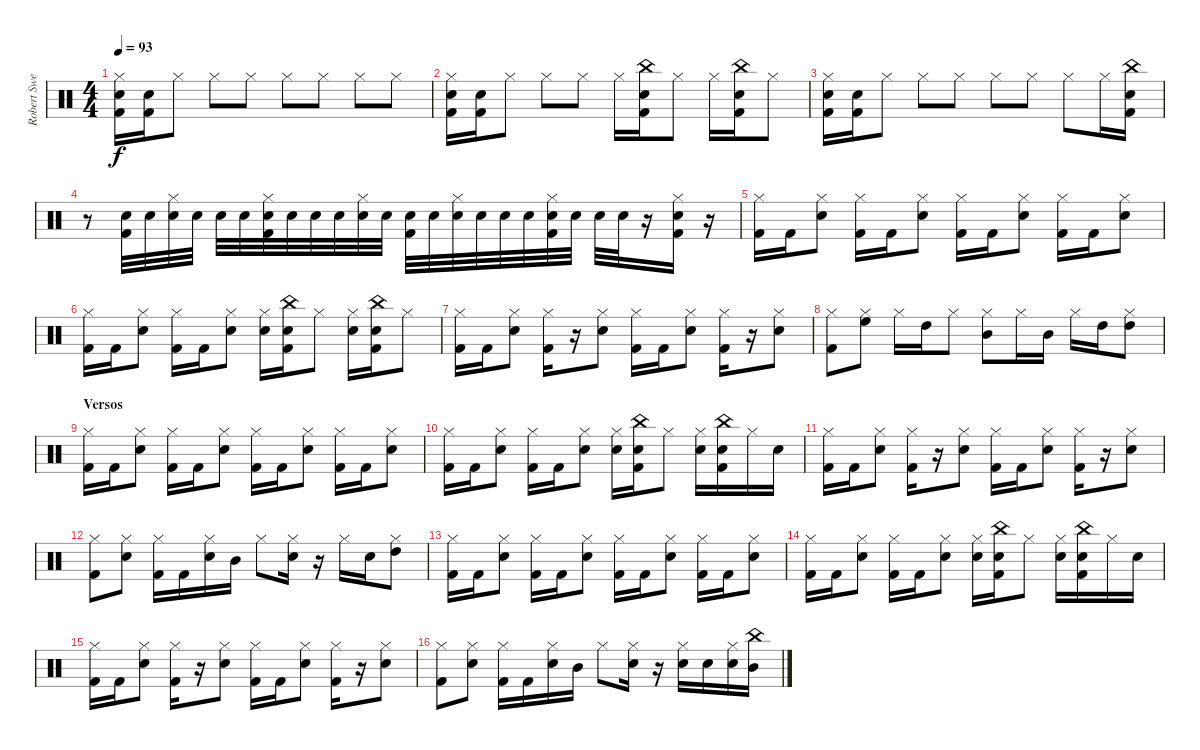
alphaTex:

\track ("Robert Sweet" "Robert Swe") {instrument percussion}
\staff {score}
\articulation defaults
\ts (4 4)
\tempo 93
\clef neutral
\ks c
("Hi-Hat (closed)" "Kick (hit) 2" "Snare (hit) 2").16{dy f} ("Kick (hit) 2" "Snare (hit) 2").16 "Hi-Hat (closed)".8 "Hi-Hat (closed)".8 "Hi-Hat (closed)".8 "Hi-Hat (closed)".8 "Hi-Hat (closed)".8 "Hi-Hat (closed)".8 "Hi-Hat (closed)".8 |
("Hi-Hat (closed)" "Kick (hit) 2" "Snare (hit) 2").16 ("Kick (hit) 2" "Snare (hit) 2").16 "Hi-Hat (closed)".8 "Hi-Hat (closed)".8 "Hi-Hat (closed)".8 "Hi-Hat (closed)".16 ("Kick (hit) 2" "Snare (hit) 2" "China (hit)").16 "Hi-Hat (closed)".8 "Hi-Hat (closed)".16 ("Kick (hit) 2" "Snare (hit) 2" "China (hit)").16 "Hi-Hat (closed)".8 |
("Hi-Hat (closed)" "Kick (hit) 2" "Snare (hit) 2").16 ("Kick (hit) 2" "Snare (hit) 2").16 "Hi-Hat (closed)".8 "Hi-Hat (closed)".8 "Hi-Hat (closed)".8 "Hi-Hat (closed)".8 "Hi-Hat (closed)".8 "Hi-Hat (closed)".8 "Hi-Hat (closed)".16 ("Kick (hit) 2" "Snare (hit) 2" "China (hit)").16 |
r.8 ("Snare (hit) 2" "Kick (hit) 2").32 "Snare (hit) 2".32 ("Hi-Hat (closed)" "Snare (hit) 2").32 "Snare (hit) 2".32 "Snare (hit) 2".32 "Snare (hit) 2".32 ("Hi-Hat (closed)" "Snare (hit) 2" "Kick (hit) 2").32 "Snare (hit) 2".32 "Snare (hit) 2".32 "Snare (hit) 2".32 ("Hi-Hat (closed)" "Snare (hit) 2").32 "Snare (hit) 2".32 ("Snare (hit) 2" "Kick (hit) 2").32 "Snare (hit) 2".32 ("Hi-Hat (closed)" "Snare (hit) 2").32 "Snare (hit) 2".32 "Snare (hit) 2".32 "Snare (hit) 2".32 ("Hi-Hat (closed)" "Snare (hit) 2" "Kick (hit) 2").32 "Snare (hit) 2".32 "Snare (hit) 2".32 "Snare (hit) 2".32 r.16 ("Hi-Hat (closed)" "Snare (hit) 2" "Kick (hit) 2").16 r.16 |
("Hi-Hat (closed)" "Kick (hit) 2").16 "Kick (hit) 2".16 ("Hi-Hat (closed)" "Snare (hit) 2").8 ("Hi-Hat (closed)" "Kick (hit) 2").16 "Kick (hit) 2".16 ("Hi-Hat (closed)" "Snare (hit) 2").8 ("Hi-Hat (closed)" "Kick (hit) 2").16 "Kick (hit) 2".16 ("Hi-Hat (closed)" "Snare (hit) 2").8 ("Hi-Hat (closed)" "Kick (hit) 2").16 "Kick (hit) 2".16 ("Hi-Hat (closed)" "Snare (hit) 2").8 |
("Hi-Hat (closed)" "Kick (hit) 2").16 "Kick (hit) 2".16 ("Hi-Hat (closed)" "Snare (hit) 2").8 ("Hi-Hat (closed)" "Kick (hit) 2").16 "Kick (hit) 2".16 ("Hi-Hat (closed)" "Snare (hit) 2").8 ("Hi-Hat (closed)" "Snare (hit) 2").16 ("Kick (hit) 2" "Snare (hit) 2" "China (hit)").16 "Hi-Hat (closed)".8 ("Hi-Hat (closed)" "Snare (hit) 2").16 ("Kick (hit) 2" "Snare (hit) 2" "China (hit)").16 "Hi-Hat (closed)".8 |
("Hi-Hat (closed)" "Kick (hit) 2").16 "Kick (hit) 2".16 ("Hi-Hat (closed)" "Snare (hit) 2").8 ("Hi-Hat (closed)" "Kick (hit) 2").16 r.16 ("Hi-Hat (closed)" "Snare (hit) 2").8 ("Hi-Hat (closed)" "Kick (hit) 2").16 "Kick (hit) 2".16 ("Hi-Hat (closed)" "Snare (hit) 2").8 ("Hi-Hat (closed)" "Kick (hit) 2").16 r.16 ("Hi-Hat (closed)" "Snare (hit) 2").8 |
("Hi-Hat (closed)" "Kick (hit) 2").8 ("Hi-Hat (closed)" "High Floor Tom (hit)").8 "Hi-Hat (closed)".16 "High Tom (hit)".16 "Hi-Hat (closed)".8 ("Hi-Hat (closed)" "Mid Tom (hit)").8 "Hi-Hat (closed)".16 "Mid Tom (hit)".16 "Hi-Hat (closed)".16 "High Tom (hit)".16 ("Hi-Hat (closed)" "High Tom (hit)").8 |
\section ("" "Versos")
("Hi-Hat (closed)" "Kick (hit) 2").16 "Kick (hit) 2".16 ("Hi-Hat (closed)" "Snare (hit) 2").8 ("Hi-Hat (closed)" "Kick (hit) 2").16 "Kick (hit) 2".16 ("Hi-Hat (closed)" "Snare (hit) 2").8 ("Hi-Hat (closed)" "Kick (hit) 2").16 "Kick (hit) 2".16 ("Hi-Hat (closed)" "Snare (hit) 2").8 ("Hi-Hat (closed)" "Kick (hit) 2").16 "Kick (hit) 2".16 ("Hi-Hat (closed)" "Snare (hit) 2").8 |
("Hi-Hat (closed)" "Kick (hit) 2").16 "Kick (hit) 2".16 ("Hi-Hat (closed)" "Snare (hit) 2").8 ("Hi-Hat (closed)" "Kick (hit) 2").16 "Kick (hit) 2".16 ("Hi-Hat (closed)" "Snare (hit) 2").8 ("Hi-Hat (closed)" "Snare (hit) 2").16 ("Kick (hit) 2" "Snare (hit) 2" "China (hit)").16 "Hi-Hat (closed)".8 ("Hi-Hat (closed)" "Snare (hit) 2").16 ("Kick (hit) 2" "Snare (hit) 2" "China (hit)").16 "Hi-Hat (closed)".16 "Snare (hit) 2".16 |
("Hi-Hat (closed)" "Kick (hit) 2").16 "Kick (hit) 2".16 ("Hi-Hat (closed)" "Snare (hit) 2").8 ("Hi-Hat (closed)" "Kick (hit) 2").16 r.16 ("Hi-Hat (closed)" "Snare (hit) 2").8 ("Hi-Hat (closed)" "Kick (hit) 2").16 "Kick (hit) 2".16 ("Hi-Hat (closed)" "Snare (hit) 2").8 ("Hi-Hat (closed)" "Kick (hit) 2").16 r.16 ("Hi-Hat (closed)" "Snare (hit) 2").8 |
("Hi-Hat (closed)" "Kick (hit) 2").8 ("Hi-Hat (closed)" "Snare (hit) 2").8 ("Hi-Hat (closed)" "Kick (hit) 2").16 "Kick (hit) 2".16 ("Hi-Hat (closed)" "Snare (hit) 2").16 "Mid Tom (hit)".16 "Hi-Hat (closed)".8 ("Hi-Hat (closed)" "Snare (hit) 2").16 r.16 "Hi-Hat (closed)".16 "Snare (hit) 2".16 ("Hi-Hat (closed)" "High Tom (hit)").8 |
("Hi-Hat (closed)" "Kick (hit) 2").16 "Kick (hit) 2".16 ("Hi-Hat (closed)" "Snare (hit) 2").8 ("Hi-Hat (closed)" "Kick (hit) 2").16 "Kick (hit) 2".16 ("Hi-Hat (closed)" "Snare (hit) 2").8 ("Hi-Hat (closed)" "Kick (hit) 2").16 "Kick (hit) 2".16 ("Hi-Hat (closed)" "Snare (hit) 2").8 ("Hi-Hat (closed)" "Kick (hit) 2").16 "Kick (hit) 2".16 ("Hi-Hat (closed)" "Snare (hit) 2").8 |
("Hi-Hat (closed)" "Kick (hit) 2").16 "Kick (hit) 2".16 ("Hi-Hat (closed)" "Snare (hit) 2").8 ("Hi-Hat (closed)" "Kick (hit) 2").16 "Kick (hit) 2".16 ("Hi-Hat (closed)" "Snare (hit) 2").8 ("Hi-Hat (closed)" "Snare (hit) 2").16 ("Kick (hit) 2" "Snare (hit) 2" "China (hit)").16 "Hi-Hat (closed)".8 ("Hi-Hat (closed)" "Snare (hit) 2").16 ("Kick (hit) 2" "Snare (hit) 2" "China (hit)").16 "Hi-Hat (closed)".16 "Snare (hit) 2".16 |
("Hi-Hat (closed)" "Kick (hit) 2").16 "Kick (hit) 2".16 ("Hi-Hat (closed)" "Snare (hit) 2").8 ("Hi-Hat (closed)" "Kick (hit) 2").16 r.16 ("Hi-Hat (closed)" "Snare (hit) 2").8 ("Hi-Hat (closed)" "Kick (hit) 2").16 "Kick (hit) 2".16 ("Hi-Hat (closed)" "Snare (hit) 2").8 ("Hi-Hat (closed)" "Kick (hit) 2").16 r.16 ("Hi-Hat (closed)" "Snare (hit) 2").8 |
("Hi-Hat (closed)" "Kick (hit) 2").8 ("Hi-Hat (closed)" "Snare (hit) 2").8 ("Hi-Hat (closed)" "Kick (hit) 2").16 "Kick (hit) 2".16 ("Hi-Hat (closed)" "Snare (hit) 2").16 "Mid Tom (hit)".16 "Hi-Hat (closed)".8 ("Hi-Hat (closed)" "Snare (hit) 2").16 r.16 ("Hi-Hat (closed)" "Snare (hit) 2").16 "Snare (hit) 2".16 ("Hi-Hat (closed)" "Snare (hit) 2").16 ("Mid Tom (hit)" "China (hit)").16
